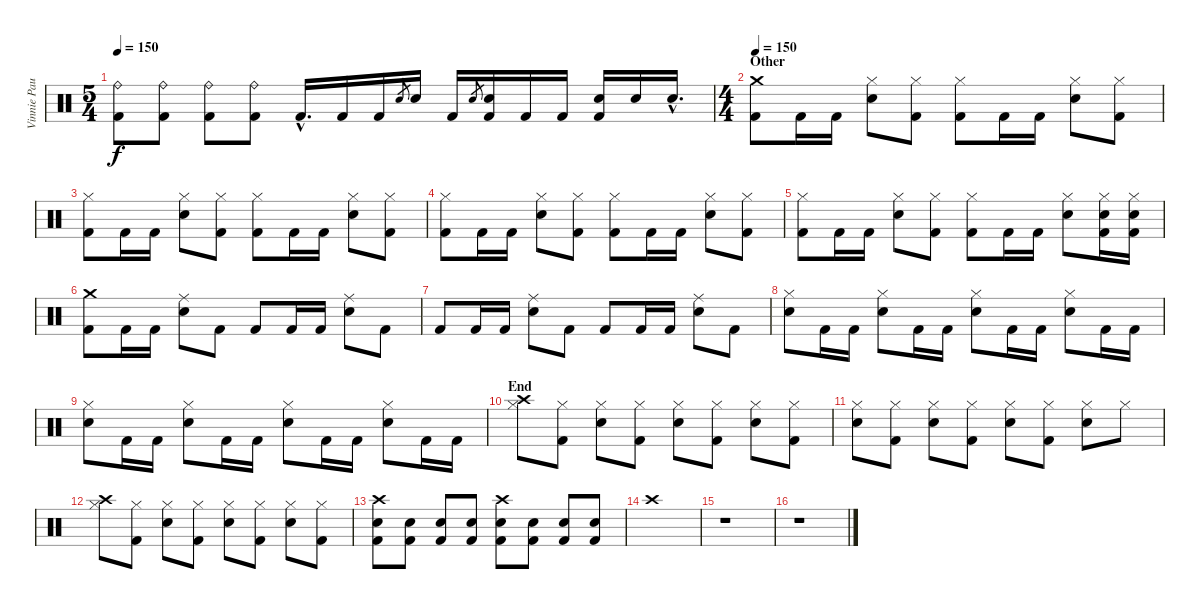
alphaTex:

\track ("Vinnie Paul" "Vinnie Pau") {instrument percussion}
\staff {score}
\articulation defaults
\ts (5 4)
\tempo 150
\clef neutral
\ks c
("Ride (bell)" "Kick (hit) 2").8{dy f} ("Ride (bell)" "Kick (hit) 2").8 ("Ride (bell)" "Kick (hit) 2").8 ("Ride (bell)" "Kick (hit) 2").8 "Kick (hit) 2"{hac}.16{d} "Kick (hit) 2".16 "Kick (hit) 2".16 "Snare (hit) 2".8{gr} "Snare (hit) 2".16 "Kick (hit) 2".16 "Snare (hit) 2".8{gr} ("Snare (hit) 2" "Kick (hit) 2").16 "Kick (hit) 2".16 "Kick (hit) 2".16 ("Snare (hit) 2" "Kick (hit) 2").16 "Snare (hit) 2".16 "Snare (hit) 2"{hac}.16{d} |
\ts (4 4)
\section ("" "Other")
\tempo 150
("Crash medium (hit)" "Kick (hit) 2").8 "Kick (hit) 2".16 "Kick (hit) 2".16 ("Hi-Hat (closed)" "Snare (hit) 2").8 ("Hi-Hat (closed)" "Kick (hit) 2").8 ("Hi-Hat (closed)" "Kick (hit) 2").8 "Kick (hit) 2".16 "Kick (hit) 2".16 ("Hi-Hat (closed)" "Snare (hit) 2").8 ("Hi-Hat (closed)" "Kick (hit) 2").8 |
("Hi-Hat (closed)" "Kick (hit) 2").8 "Kick (hit) 2".16 "Kick (hit) 2".16 ("Hi-Hat (closed)" "Snare (hit) 2").8 ("Hi-Hat (closed)" "Kick (hit) 2").8 ("Hi-Hat (closed)" "Kick (hit) 2").8 "Kick (hit) 2".16 "Kick (hit) 2".16 ("Hi-Hat (closed)" "Snare (hit) 2").8 ("Hi-Hat (closed)" "Kick (hit) 2").8 |
("Hi-Hat (closed)" "Kick (hit) 2").8 "Kick (hit) 2".16 "Kick (hit) 2".16 ("Hi-Hat (closed)" "Snare (hit) 2").8 ("Hi-Hat (closed)" "Kick (hit) 2").8 ("Hi-Hat (closed)" "Kick (hit) 2").8 "Kick (hit) 2".16 "Kick (hit) 2".16 ("Hi-Hat (closed)" "Snare (hit) 2").8 ("Hi-Hat (closed)" "Kick (hit) 2").8 |
("Hi-Hat (closed)" "Kick (hit) 2").8 "Kick (hit) 2".16 "Kick (hit) 2".16 ("Hi-Hat (closed)" "Snare (hit) 2").8 ("Hi-Hat (closed)" "Kick (hit) 2").8 ("Hi-Hat (closed)" "Kick (hit) 2").8 "Kick (hit) 2".16 "Kick (hit) 2".16 ("Hi-Hat (closed)" "Snare (hit) 2").8 ("Hi-Hat (closed)" "Snare (hit) 2" "Kick (hit) 2").16 ("Hi-Hat (closed)" "Snare (hit) 2" "Kick (hit) 2").16 |
("Crash medium (hit)" "Kick (hit) 2").8 "Kick (hit) 2".16 "Kick (hit) 2".16 ("Ride (middle)" "Snare (hit) 2").8 "Kick (hit) 2".8 "Kick (hit) 2".8 "Kick (hit) 2".16 "Kick (hit) 2".16 ("Ride (middle)" "Snare (hit) 2").8 "Kick (hit) 2".8 |
"Kick (hit) 2".8 "Kick (hit) 2".16 "Kick (hit) 2".16 ("Ride (middle)" "Snare (hit) 2").8 "Kick (hit) 2".8 "Kick (hit) 2".8 "Kick (hit) 2".16 "Kick (hit) 2".16 ("Ride (middle)" "Snare (hit) 2").8 "Kick (hit) 2".8 |
("Hi-Hat (closed)" "Snare (hit) 2").8 "Kick (hit) 2".16 "Kick (hit) 2".16 ("Hi-Hat (closed)" "Snare (hit) 2").8 "Kick (hit) 2".16 "Kick (hit) 2".16 ("Hi-Hat (closed)" "Snare (hit) 2").8 "Kick (hit) 2".16 "Kick (hit) 2".16 ("Hi-Hat (closed)" "Snare (hit) 2").8 "Kick (hit) 2".16 "Kick (hit) 2".16 |
("Hi-Hat (closed)" "Snare (hit) 2").8 "Kick (hit) 2".16 "Kick (hit) 2".16 ("Hi-Hat (closed)" "Snare (hit) 2").8 "Kick (hit) 2".16 "Kick (hit) 2".16 ("Hi-Hat (closed)" "Snare (hit) 2").8 "Kick (hit) 2".16 "Kick (hit) 2".16 ("Hi-Hat (closed)" "Snare (hit) 2").8 "Kick (hit) 2".16 "Kick (hit) 2".16 |
\section ("" "End")
("Crash high (hit)" "Hi-Hat (closed)").8 ("Hi-Hat (closed)" "Kick (hit) 2").8 ("Snare (hit) 2" "Hi-Hat (closed)").8 ("Hi-Hat (closed)" "Kick (hit) 2").8 ("Snare (hit) 2" "Hi-Hat (closed)").8 ("Hi-Hat (closed)" "Kick (hit) 2").8 ("Snare (hit) 2" "Hi-Hat (closed)").8 ("Hi-Hat (closed)" "Kick (hit) 2").8 |
("Snare (hit) 2" "Hi-Hat (closed)").8 ("Hi-Hat (closed)" "Kick (hit) 2").8 ("Snare (hit) 2" "Hi-Hat (closed)").8 ("Hi-Hat (closed)" "Kick (hit) 2").8 ("Snare (hit) 2" "Hi-Hat (closed)").8 ("Hi-Hat (closed)" "Kick (hit) 2").8 ("Snare (hit) 2" "Hi-Hat (closed)").8 "Hi-Hat (closed)".8 |
("Crash high (hit)" "Hi-Hat (closed)").8 ("Hi-Hat (closed)" "Kick (hit) 2").8 ("Snare (hit) 2" "Hi-Hat (closed)").8 ("Hi-Hat (closed)" "Kick (hit) 2").8 ("Snare (hit) 2" "Hi-Hat (closed)").8 ("Hi-Hat (closed)" "Kick (hit) 2").8 ("Snare (hit) 2" "Hi-Hat (closed)").8 ("Hi-Hat (closed)" "Kick (hit) 2").8 |
("Crash high (hit)" "Snare (hit) 2" "Kick (hit) 2").8 ("Snare (hit) 2" "Kick (hit) 2").8 ("Snare (hit) 2" "Kick (hit) 2").8 ("Snare (hit) 2" "Kick (hit) 2").8 ("Crash high (hit)" "Snare (hit) 2" "Kick (hit) 2").8 ("Snare (hit) 2" "Kick (hit) 2").8 ("Snare (hit) 2" "Kick (hit) 2").8 ("Snare (hit) 2" "Kick (hit) 2").8 |
"Crash high (hit)".1 |
r.1 |
r.1
